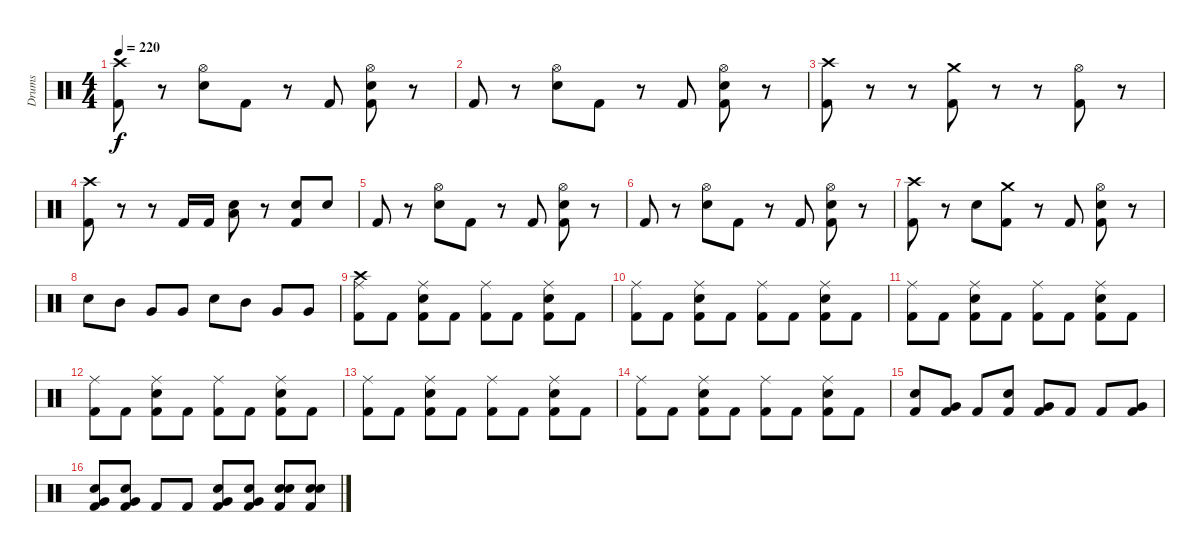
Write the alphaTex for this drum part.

\track ("Drums" "Drums") {instrument percussion}
\staff {score}
\articulation defaults
\ts (4 4)
\tempo 220
\clef neutral
\ks c
("Crash high (hit)" "Kick (hit) 2").8{dy f} r.8 ("Electric Snare (hit)" "Hi-Hat (open)").8 "Kick (hit) 2".8 r.8 "Kick (hit) 2".8 ("Electric Snare (hit)" "Hi-Hat (open)" "Kick (hit) 2").8 r.8 |
"Kick (hit) 2".8 r.8 ("Electric Snare (hit)" "Hi-Hat (open)").8 "Kick (hit) 2".8 r.8 "Kick (hit) 2".8 ("Electric Snare (hit)" "Hi-Hat (open)" "Kick (hit) 2").8 r.8 |
("Crash high (hit)" "Kick (hit) 2").8 r.8 r.8 ("Crash medium (hit)" "Kick (hit) 2").8 r.8 r.8 ("Hi-Hat (open)" "Kick (hit) 2").8 r.8 |
("Crash high (hit)" "Kick (hit) 2").8 r.8 r.8 "Kick (hit) 2".16 "Kick (hit) 2".16 ("Electric Snare (hit)" "Low Floor Tom (hit)").8 r.8 ("Electric Snare (hit)" "Kick (hit) 2").8 "Electric Snare (hit)".8 |
"Kick (hit) 2".8 r.8 ("Electric Snare (hit)" "Hi-Hat (open)").8 "Kick (hit) 2".8 r.8 "Kick (hit) 2".8 ("Electric Snare (hit)" "Hi-Hat (open)" "Kick (hit) 2").8 r.8 |
"Kick (hit) 2".8 r.8 ("Electric Snare (hit)" "Hi-Hat (open)").8 "Kick (hit) 2".8 r.8 "Kick (hit) 2".8 ("Electric Snare (hit)" "Hi-Hat (open)" "Kick (hit) 2").8 r.8 |
("Crash high (hit)" "Kick (hit) 2").8 r.8 "Electric Snare (hit)".8 ("Crash medium (hit)" "Kick (hit) 2").8 r.8 "Kick (hit) 2".8 ("Electric Snare (hit)" "Hi-Hat (open)" "Kick (hit) 2").8 r.8 |
"Electric Snare (hit)".8 "Mid Tom (hit)".8 "Very Low Tom (hit)".8 "Very Low Tom (hit)".8 "Electric Snare (hit)".8 "Mid Tom (hit)".8 "Very Low Tom (hit)".8 "Very Low Tom (hit)".8 |
("Crash high (hit)" "Ride (middle)" "Kick (hit) 2").8 "Kick (hit) 2".8 ("Electric Snare (hit)" "Ride (middle)" "Kick (hit) 2").8 "Kick (hit) 2".8 ("Ride (middle)" "Kick (hit) 2").8 "Kick (hit) 2".8 ("Electric Snare (hit)" "Ride (middle)" "Kick (hit) 2").8 "Kick (hit) 2".8 |
("Ride (middle)" "Kick (hit) 2").8 "Kick (hit) 2".8 ("Electric Snare (hit)" "Ride (middle)" "Kick (hit) 2").8 "Kick (hit) 2".8 ("Ride (middle)" "Kick (hit) 2").8 "Kick (hit) 2".8 ("Electric Snare (hit)" "Ride (middle)" "Kick (hit) 2").8 "Kick (hit) 2".8 |
("Ride (middle)" "Kick (hit) 2").8 "Kick (hit) 2".8 ("Electric Snare (hit)" "Ride (middle)" "Kick (hit) 2").8 "Kick (hit) 2".8 ("Ride (middle)" "Kick (hit) 2").8 "Kick (hit) 2".8 ("Electric Snare (hit)" "Ride (middle)" "Kick (hit) 2").8 "Kick (hit) 2".8 |
("Ride (middle)" "Kick (hit) 2").8 "Kick (hit) 2".8 ("Electric Snare (hit)" "Ride (middle)" "Kick (hit) 2").8 "Kick (hit) 2".8 ("Ride (middle)" "Kick (hit) 2").8 "Kick (hit) 2".8 ("Electric Snare (hit)" "Ride (middle)" "Kick (hit) 2").8 "Kick (hit) 2".8 |
("Ride (middle)" "Kick (hit) 2").8 "Kick (hit) 2".8 ("Electric Snare (hit)" "Ride (middle)" "Kick (hit) 2").8 "Kick (hit) 2".8 ("Ride (middle)" "Kick (hit) 2").8 "Kick (hit) 2".8 ("Electric Snare (hit)" "Ride (middle)" "Kick (hit) 2").8 "Kick (hit) 2".8 |
("Ride (middle)" "Kick (hit) 2").8 "Kick (hit) 2".8 ("Electric Snare (hit)" "Ride (middle)" "Kick (hit) 2").8 "Kick (hit) 2".8 ("Ride (middle)" "Kick (hit) 2").8 "Kick (hit) 2".8 ("Electric Snare (hit)" "Ride (middle)" "Kick (hit) 2").8 "Kick (hit) 2".8 |
("Electric Snare (hit)" "Kick (hit) 2").8 ("Very Low Tom (hit)" "Kick (hit) 2").8 "Kick (hit) 2".8 ("Electric Snare (hit)" "Kick (hit) 2").8 ("Very Low Tom (hit)" "Kick (hit) 2").8 "Kick (hit) 2".8 "Kick (hit) 2".8 ("Very Low Tom (hit)" "Kick (hit) 2").8 |
("Electric Snare (hit)" "Very Low Tom (hit)" "Kick (hit) 2").8 ("Electric Snare (hit)" "Very Low Tom (hit)" "Kick (hit) 2").8 "Kick (hit) 2".8 "Kick (hit) 2".8 ("Electric Snare (hit)" "Very Low Tom (hit)" "Kick (hit) 2").8 ("Electric Snare (hit)" "Very Low Tom (hit)" "Kick (hit) 2").8 ("Electric Snare (hit)" "Electric Snare (hit)" "Kick (hit) 2").8 ("Electric Snare (hit)" "Electric Snare (hit)" "Kick (hit) 2").8
